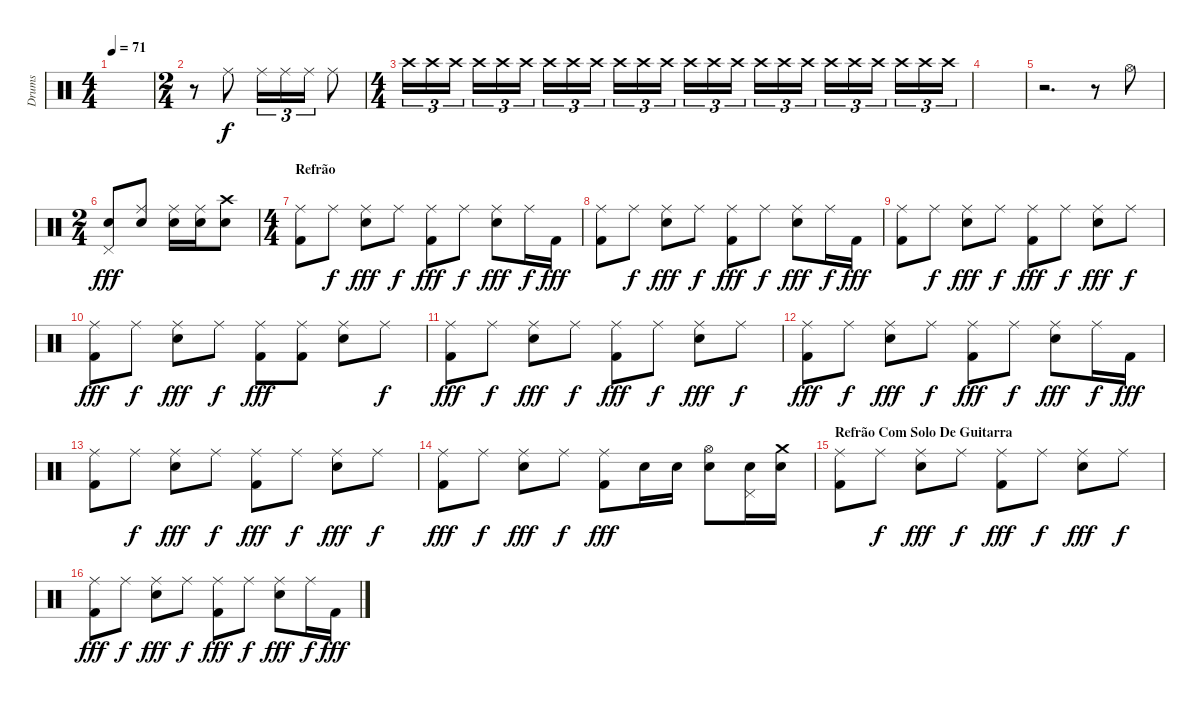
\track ("Drums" "Drums") {instrument percussion}
\staff {score}
\articulation defaults
\ts (4 4)
\tempo 71
\clef neutral
\ks c
|
\ts (2 4)
r.8 "Ride (middle)".8{dy f} "Ride (middle)".16{tu (3 2)} "Ride (middle)".16{tu (3 2)} "Ride (middle)".16{tu (3 2)} "Ride (middle)".8 |
\ts (4 4)
"Crash high (hit)".16{tu (3 2) volume 1} "Crash high (hit)".16{tu (3 2) volume 11} "Crash high (hit)".16{tu (3 2)} "Crash high (hit)".16{tu (3 2)} "Crash high (hit)".16{tu (3 2)} "Crash high (hit)".16{tu (3 2)} "Crash high (hit)".16{tu (3 2)} "Crash high (hit)".16{tu (3 2)} "Crash high (hit)".16{tu (3 2)} "Crash high (hit)".16{tu (3 2)} "Crash high (hit)".16{tu (3 2)} "Crash high (hit)".16{tu (3 2)} "Crash high (hit)".16{tu (3 2)} "Crash high (hit)".16{tu (3 2) volume 1} "Crash high (hit)".16{tu (3 2)} "Crash high (hit)".16{tu (3 2)} "Crash high (hit)".16{tu (3 2)} "Crash high (hit)".16{tu (3 2)} "Crash high (hit)".16{tu (3 2)} "Crash high (hit)".16{tu (3 2)} "Crash high (hit)".16{tu (3 2)} "Crash high (hit)".16{tu (3 2)} "Crash high (hit)".16{tu (3 2)} "Crash high (hit)".16{tu (3 2)} |
|
r.2{d} r.8 "Hi-Hat (open)".8{volume 13} |
\ts (2 4)
("Electric Snare (hit)" "Pedal Hi-Hat (hit)").8{dy fff} ("Electric Snare (hit)" "Ride (middle)").8 ("Electric Snare (hit)" "Ride (middle)").16 ("Electric Snare (hit)" "Ride (middle)").16 ("Electric Snare (hit)" "Crash high (hit)").8 |
\ts (4 4)
\section ("" "Refrão")
("Ride (middle)" "Kick (hit) 2").8 "Ride (middle)".8{dy f} ("Ride (middle)" "Electric Snare (hit)").8{dy fff} "Ride (middle)".8{dy f} ("Ride (middle)" "Kick (hit) 2").8{dy fff} "Ride (middle)".8{dy f} ("Ride (middle)" "Electric Snare (hit)").8{dy fff} "Ride (middle)".16{dy f} "Kick (hit) 2".16{dy fff} |
("Ride (middle)" "Kick (hit) 2").8 "Ride (middle)".8{dy f} ("Ride (middle)" "Electric Snare (hit)").8{dy fff} "Ride (middle)".8{dy f} ("Ride (middle)" "Kick (hit) 2").8{dy fff} "Ride (middle)".8{dy f} ("Ride (middle)" "Electric Snare (hit)").8{dy fff} "Ride (middle)".16{dy f} "Kick (hit) 2".16{dy fff} |
("Ride (middle)" "Kick (hit) 2").8 "Ride (middle)".8{dy f} ("Ride (middle)" "Electric Snare (hit)").8{dy fff} "Ride (middle)".8{dy f} ("Ride (middle)" "Kick (hit) 2").8{dy fff} "Ride (middle)".8{dy f} ("Ride (middle)" "Electric Snare (hit)").8{dy fff} "Ride (middle)".8{dy f} |
("Ride (middle)" "Kick (hit) 2").8{dy fff} "Ride (middle)".8{dy f} ("Ride (middle)" "Electric Snare (hit)").8{dy fff} "Ride (middle)".8{dy f} ("Ride (middle)" "Kick (hit) 2").8{dy fff} ("Ride (middle)" "Kick (hit) 2").8 ("Ride (middle)" "Electric Snare (hit)").8 "Ride (middle)".8{dy f} |
("Ride (middle)" "Kick (hit) 2").8{dy fff} "Ride (middle)".8{dy f} ("Ride (middle)" "Electric Snare (hit)").8{dy fff} "Ride (middle)".8{dy f} ("Ride (middle)" "Kick (hit) 2").8{dy fff} "Ride (middle)".8{dy f} ("Ride (middle)" "Electric Snare (hit)").8{dy fff} "Ride (middle)".8{dy f} |
("Ride (middle)" "Kick (hit) 2").8{dy fff} "Ride (middle)".8{dy f} ("Ride (middle)" "Electric Snare (hit)").8{dy fff} "Ride (middle)".8{dy f} ("Ride (middle)" "Kick (hit) 2").8{dy fff} "Ride (middle)".8{dy f} ("Ride (middle)" "Electric Snare (hit)").8{dy fff} "Ride (middle)".16{dy f} "Kick (hit) 2".16{dy fff} |
("Ride (middle)" "Kick (hit) 2").8 "Ride (middle)".8{dy f} ("Ride (middle)" "Electric Snare (hit)").8{dy fff} "Ride (middle)".8{dy f} ("Ride (middle)" "Kick (hit) 2").8{dy fff} "Ride (middle)".8{dy f} ("Ride (middle)" "Electric Snare (hit)").8{dy fff} "Ride (middle)".8{dy f} |
("Ride (middle)" "Kick (hit) 2").8{dy fff} "Ride (middle)".8{dy f} ("Ride (middle)" "Electric Snare (hit)").8{dy fff} "Ride (middle)".8{dy f} ("Ride (middle)" "Kick (hit) 2").8{dy fff} "Electric Snare (hit)".16 "Electric Snare (hit)".16 ("Hi-Hat (open)" "Electric Snare (hit)").8 ("Pedal Hi-Hat (hit)" "Electric Snare (hit)").16 ("Electric Snare (hit)" "Crash medium (hit)").16 |
\section ("" "Refrão Com Solo De Guitarra")
("Ride (middle)" "Kick (hit) 2").8 "Ride (middle)".8{dy f} ("Ride (middle)" "Electric Snare (hit)").8{dy fff} "Ride (middle)".8{dy f} ("Ride (middle)" "Kick (hit) 2").8{dy fff} "Ride (middle)".8{dy f} ("Ride (middle)" "Electric Snare (hit)").8{dy fff} "Ride (middle)".8{dy f} |
("Ride (middle)" "Kick (hit) 2").8{dy fff} "Ride (middle)".8{dy f} ("Ride (middle)" "Electric Snare (hit)").8{dy fff} "Ride (middle)".8{dy f} ("Ride (middle)" "Kick (hit) 2").8{dy fff} "Ride (middle)".8{dy f} ("Ride (middle)" "Electric Snare (hit)").8{dy fff} "Ride (middle)".16{dy f} "Kick (hit) 2".16{dy fff}
